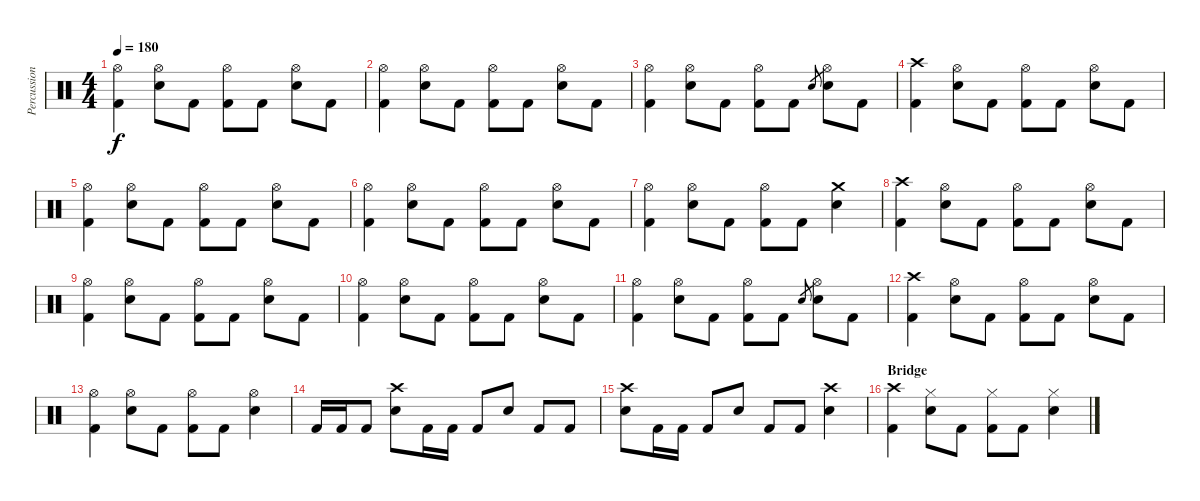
\track ("Percussion" "Percussion") {instrument percussion}
\staff {score}
\articulation defaults
\ts (4 4)
\tempo 180
\clef neutral
\ks c
("Hi-Hat (open)" "Kick (hit) 2").4{dy f} ("Hi-Hat (open)" "Electric Snare (hit)").8 "Kick (hit) 2".8 ("Hi-Hat (open)" "Kick (hit) 2").8 "Kick (hit) 2".8 ("Hi-Hat (open)" "Electric Snare (hit)").8 "Kick (hit) 2".8 |
("Hi-Hat (open)" "Kick (hit) 2").4 ("Hi-Hat (open)" "Electric Snare (hit)").8 "Kick (hit) 2".8 ("Hi-Hat (open)" "Kick (hit) 2").8 "Kick (hit) 2".8 ("Hi-Hat (open)" "Electric Snare (hit)").8 "Kick (hit) 2".8 |
("Hi-Hat (open)" "Kick (hit) 2").4 ("Hi-Hat (open)" "Electric Snare (hit)").8 "Kick (hit) 2".8 ("Hi-Hat (open)" "Kick (hit) 2").8 "Kick (hit) 2".8 "Electric Snare (hit)".8{gr} ("Hi-Hat (open)" "Electric Snare (hit)").8 "Kick (hit) 2".8 |
("Crash high (hit)" "Kick (hit) 2").4 ("Hi-Hat (open)" "Electric Snare (hit)").8 "Kick (hit) 2".8 ("Hi-Hat (open)" "Kick (hit) 2").8 "Kick (hit) 2".8 ("Hi-Hat (open)" "Electric Snare (hit)").8 "Kick (hit) 2".8 |
("Hi-Hat (open)" "Kick (hit) 2").4 ("Hi-Hat (open)" "Electric Snare (hit)").8 "Kick (hit) 2".8 ("Hi-Hat (open)" "Kick (hit) 2").8 "Kick (hit) 2".8 ("Hi-Hat (open)" "Electric Snare (hit)").8 "Kick (hit) 2".8 |
("Hi-Hat (open)" "Kick (hit) 2").4 ("Hi-Hat (open)" "Electric Snare (hit)").8 "Kick (hit) 2".8 ("Hi-Hat (open)" "Kick (hit) 2").8 "Kick (hit) 2".8 ("Hi-Hat (open)" "Electric Snare (hit)").8 "Kick (hit) 2".8 |
("Hi-Hat (open)" "Kick (hit) 2").4 ("Hi-Hat (open)" "Electric Snare (hit)").8 "Kick (hit) 2".8 ("Hi-Hat (open)" "Kick (hit) 2").8 "Kick (hit) 2".8 ("Crash medium (hit)" "Electric Snare (hit)").4 |
("Crash high (hit)" "Kick (hit) 2").4 ("Hi-Hat (open)" "Electric Snare (hit)").8 "Kick (hit) 2".8 ("Hi-Hat (open)" "Kick (hit) 2").8 "Kick (hit) 2".8 ("Hi-Hat (open)" "Electric Snare (hit)").8 "Kick (hit) 2".8 |
("Hi-Hat (open)" "Kick (hit) 2").4 ("Hi-Hat (open)" "Electric Snare (hit)").8 "Kick (hit) 2".8 ("Hi-Hat (open)" "Kick (hit) 2").8 "Kick (hit) 2".8 ("Hi-Hat (open)" "Electric Snare (hit)").8 "Kick (hit) 2".8 |
("Hi-Hat (open)" "Kick (hit) 2").4 ("Hi-Hat (open)" "Electric Snare (hit)").8 "Kick (hit) 2".8 ("Hi-Hat (open)" "Kick (hit) 2").8 "Kick (hit) 2".8 ("Hi-Hat (open)" "Electric Snare (hit)").8 "Kick (hit) 2".8 |
("Hi-Hat (open)" "Kick (hit) 2").4 ("Hi-Hat (open)" "Electric Snare (hit)").8 "Kick (hit) 2".8 ("Hi-Hat (open)" "Kick (hit) 2").8 "Kick (hit) 2".8 "Electric Snare (hit)".8{gr} ("Hi-Hat (open)" "Electric Snare (hit)").8 "Kick (hit) 2".8 |
("Crash high (hit)" "Kick (hit) 2").4 ("Hi-Hat (open)" "Electric Snare (hit)").8 "Kick (hit) 2".8 ("Hi-Hat (open)" "Kick (hit) 2").8 "Kick (hit) 2".8 ("Hi-Hat (open)" "Electric Snare (hit)").8 "Kick (hit) 2".8 |
("Hi-Hat (open)" "Kick (hit) 2").4 ("Hi-Hat (open)" "Electric Snare (hit)").8 "Kick (hit) 2".8 ("Hi-Hat (open)" "Kick (hit) 2").8 "Kick (hit) 2".8 ("Hi-Hat (open)" "Electric Snare (hit)").4 |
"Kick (hit) 2".16 "Kick (hit) 2".16 "Kick (hit) 2".8 ("Crash high (hit)" "Electric Snare (hit)").8 "Kick (hit) 2".16 "Kick (hit) 2".16 "Kick (hit) 2".8 "Electric Snare (hit)".8 "Kick (hit) 2".8 "Kick (hit) 2".8 |
("Crash high (hit)" "Electric Snare (hit)").8 "Kick (hit) 2".16 "Kick (hit) 2".16 "Kick (hit) 2".8 "Electric Snare (hit)".8 "Kick (hit) 2".8 "Kick (hit) 2".8 ("Crash high (hit)" "Electric Snare (hit)").4 |
\section ("" "Bridge")
("Crash high (hit)" "Kick (hit) 2").4 ("Hi-Hat (closed)" "Electric Snare (hit)").8 "Kick (hit) 2".8 ("Hi-Hat (closed)" "Kick (hit) 2").8 "Kick (hit) 2".8 ("Hi-Hat (closed)" "Electric Snare (hit)").4
